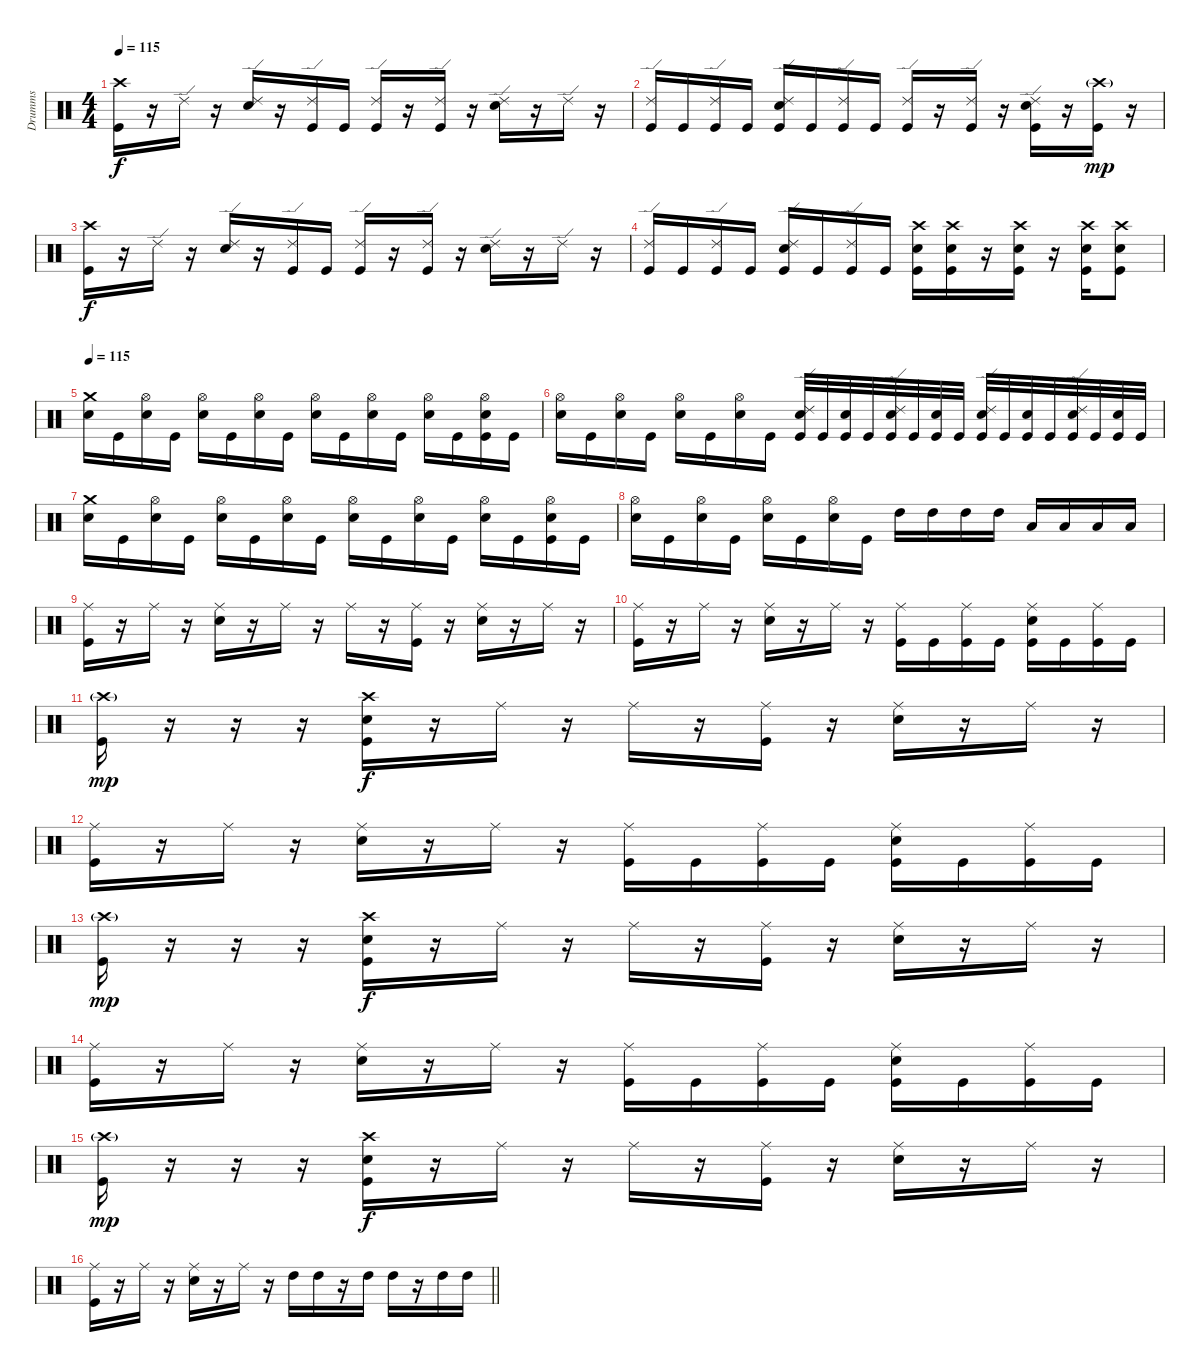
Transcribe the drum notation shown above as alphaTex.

\track ("Drumms" "Drumms") {instrument percussion}
\staff {score}
\articulation defaults
\ts (4 4)
\tempo 115
\clef neutral
\ks c
("Crash high (hit)" "Kick (hit)").16{dy f} r.16 "Ride (edge) 2".16 r.16 ("Ride (edge) 2" "Snare (hit) 2").16 r.16 ("Ride (edge) 2" "Kick (hit)").16 "Kick (hit)".16 ("Ride (edge) 2" "Kick (hit)").16 r.16 ("Ride (edge) 2" "Kick (hit)").16 r.16 ("Ride (edge) 2" "Snare (hit) 2").16 r.16 "Ride (edge) 2".16 r.16 |
("Ride (edge) 2" "Kick (hit)").16 "Kick (hit)".16 ("Ride (edge) 2" "Kick (hit)").16 "Kick (hit)".16 ("Ride (edge) 2" "Snare (hit) 2" "Kick (hit)").16 "Kick (hit)".16 ("Ride (edge) 2" "Kick (hit)").16 "Kick (hit)".16 ("Ride (edge) 2" "Kick (hit)").16 r.16 ("Ride (edge) 2" "Kick (hit)").16 r.16 ("Ride (edge) 2" "Snare (hit) 2" "Kick (hit)").16 r.16 ("Crash high (hit)"{g} "Kick (hit)").16{dy mp} r.16 |
("Crash high (hit)" "Kick (hit)").16{dy f} r.16 "Ride (edge) 2".16 r.16 ("Ride (edge) 2" "Snare (hit) 2").16 r.16 ("Ride (edge) 2" "Kick (hit)").16 "Kick (hit)".16 ("Ride (edge) 2" "Kick (hit)").16 r.16 ("Ride (edge) 2" "Kick (hit)").16 r.16 ("Ride (edge) 2" "Snare (hit) 2").16 r.16 "Ride (edge) 2".16 r.16 |
("Ride (edge) 2" "Kick (hit)").16 "Kick (hit)".16 ("Ride (edge) 2" "Kick (hit)").16 "Kick (hit)".16 ("Ride (edge) 2" "Snare (hit) 2" "Kick (hit)").16 "Kick (hit)".16 ("Ride (edge) 2" "Kick (hit)").16 "Kick (hit)".16 ("Crash high (hit)" "Snare (hit) 2" "Kick (hit)").16 ("Crash high (hit)" "Snare (hit) 2" "Kick (hit)").16 r.16 ("Crash high (hit)" "Snare (hit) 2" "Kick (hit)").16 r.16 ("Crash high (hit)" "Snare (hit) 2" "Kick (hit)").16 ("Crash high (hit)" "Snare (hit) 2" "Kick (hit)").8 |
\tempo 115
("Crash medium (hit)" "Snare (hit) 2").16 "Kick (hit)".16 ("Hi-Hat (open)" "Snare (hit) 2").16 "Kick (hit)".16 ("Hi-Hat (open)" "Snare (hit) 2").16 "Kick (hit)".16 ("Hi-Hat (open)" "Snare (hit) 2").16 "Kick (hit)".16 ("Hi-Hat (open)" "Snare (hit) 2").16 "Kick (hit)".16 ("Hi-Hat (open)" "Snare (hit) 2").16 "Kick (hit)".16 ("Hi-Hat (open)" "Snare (hit) 2").16 "Kick (hit)".16 ("Hi-Hat (open)" "Snare (hit) 2" "Kick (hit)").16 "Kick (hit)".16 |
("Hi-Hat (open)" "Snare (hit) 2").16 "Kick (hit)".16 ("Hi-Hat (open)" "Snare (hit) 2").16 "Kick (hit)".16 ("Hi-Hat (open)" "Snare (hit) 2").16 "Kick (hit)".16 ("Hi-Hat (open)" "Snare (hit) 2").16 "Kick (hit)".16 ("Ride (edge) 2" "Snare (hit) 2" "Kick (hit)").32 "Kick (hit)".32 ("Snare (hit) 2" "Kick (hit)").32 "Kick (hit)".32 ("Ride (edge) 2" "Snare (hit) 2" "Kick (hit)").32 "Kick (hit)".32 ("Snare (hit) 2" "Kick (hit)").32 "Kick (hit)".32 ("Ride (edge) 2" "Snare (hit) 2" "Kick (hit)").32 "Kick (hit)".32 ("Snare (hit) 2" "Kick (hit)").32 "Kick (hit)".32 ("Ride (edge) 2" "Snare (hit) 2" "Kick (hit)").32 "Kick (hit)".32 ("Snare (hit) 2" "Kick (hit)").32 "Kick (hit)".32 |
("Crash medium (hit)" "Snare (hit) 2").16 "Kick (hit)".16 ("Hi-Hat (open)" "Snare (hit) 2").16 "Kick (hit)".16 ("Hi-Hat (open)" "Snare (hit) 2").16 "Kick (hit)".16 ("Hi-Hat (open)" "Snare (hit) 2").16 "Kick (hit)".16 ("Hi-Hat (open)" "Snare (hit) 2").16 "Kick (hit)".16 ("Hi-Hat (open)" "Snare (hit) 2").16 "Kick (hit)".16 ("Hi-Hat (open)" "Snare (hit) 2").16 "Kick (hit)".16 ("Hi-Hat (open)" "Snare (hit) 2" "Kick (hit)").16 "Kick (hit)".16 |
("Hi-Hat (open)" "Snare (hit) 2").16 "Kick (hit)".16 ("Hi-Hat (open)" "Snare (hit) 2").16 "Kick (hit)".16 ("Hi-Hat (open)" "Snare (hit) 2").16 "Kick (hit)".16 ("Hi-Hat (open)" "Snare (hit) 2").16 "Kick (hit)".16 "High Tom (hit)".16 "High Tom (hit)".16 "High Tom (hit)".16 "High Tom (hit)".16 "Low Tom (hit)".16 "Low Tom (hit)".16 "Low Tom (hit)".16 "Low Tom (hit)".16 |
("Ride (middle)" "Kick (hit)").16 r.16 "Ride (middle)".16 r.16 ("Ride (middle)" "Snare (hit) 2").16 r.16 "Ride (middle)".16 r.16 "Ride (middle)".16 r.16 ("Ride (middle)" "Kick (hit)").16 r.16 ("Ride (middle)" "Snare (hit) 2").16 r.16 "Ride (middle)".16 r.16 |
("Ride (middle)" "Kick (hit)").16 r.16 "Ride (middle)".16 r.16 ("Ride (middle)" "Snare (hit) 2").16 r.16 "Ride (middle)".16 r.16 ("Ride (middle)" "Kick (hit)").16 "Kick (hit)".16 ("Ride (middle)" "Kick (hit)").16 "Kick (hit)".16 ("Ride (middle)" "Snare (hit) 2" "Kick (hit)").16 "Kick (hit)".16 ("Ride (middle)" "Kick (hit)").16 "Kick (hit)".16 |
("Crash high (hit)"{g} "Kick (hit)").16{dy mp} r.16 r.16 r.16 ("Crash high (hit)" "Snare (hit) 2" "Kick (hit)").16{dy f} r.16 "Ride (middle)".16 r.16 "Ride (middle)".16 r.16 ("Ride (middle)" "Kick (hit)").16 r.16 ("Ride (middle)" "Snare (hit) 2").16 r.16 "Ride (middle)".16 r.16 |
("Ride (middle)" "Kick (hit)").16 r.16 "Ride (middle)".16 r.16 ("Ride (middle)" "Snare (hit) 2").16 r.16 "Ride (middle)".16 r.16 ("Ride (middle)" "Kick (hit)").16 "Kick (hit)".16 ("Ride (middle)" "Kick (hit)").16 "Kick (hit)".16 ("Ride (middle)" "Snare (hit) 2" "Kick (hit)").16 "Kick (hit)".16 ("Ride (middle)" "Kick (hit)").16 "Kick (hit)".16 |
("Crash high (hit)"{g} "Kick (hit)").16{dy mp} r.16 r.16 r.16 ("Crash high (hit)" "Snare (hit) 2" "Kick (hit)").16{dy f} r.16 "Ride (middle)".16 r.16 "Ride (middle)".16 r.16 ("Ride (middle)" "Kick (hit)").16 r.16 ("Ride (middle)" "Snare (hit) 2").16 r.16 "Ride (middle)".16 r.16 |
("Ride (middle)" "Kick (hit)").16 r.16 "Ride (middle)".16 r.16 ("Ride (middle)" "Snare (hit) 2").16 r.16 "Ride (middle)".16 r.16 ("Ride (middle)" "Kick (hit)").16 "Kick (hit)".16 ("Ride (middle)" "Kick (hit)").16 "Kick (hit)".16 ("Ride (middle)" "Snare (hit) 2" "Kick (hit)").16 "Kick (hit)".16 ("Ride (middle)" "Kick (hit)").16 "Kick (hit)".16 |
("Crash high (hit)"{g} "Kick (hit)").16{dy mp} r.16 r.16 r.16 ("Crash high (hit)" "Snare (hit) 2" "Kick (hit)").16{dy f} r.16 "Ride (middle)".16 r.16 "Ride (middle)".16 r.16 ("Ride (middle)" "Kick (hit)").16 r.16 ("Ride (middle)" "Snare (hit) 2").16 r.16 "Ride (middle)".16 r.16 |
\barLineRight lightlight
("Ride (middle)" "Kick (hit)").16 r.16 "Ride (middle)".16 r.16 ("Ride (middle)" "Snare (hit) 2").16 r.16 "Ride (middle)".16 r.16 "High Tom (hit)".16 "High Tom (hit)".16 r.16 "High Tom (hit)".16 "High Tom (hit)".16 r.16 "High Tom (hit)".16 "High Tom (hit)".16
